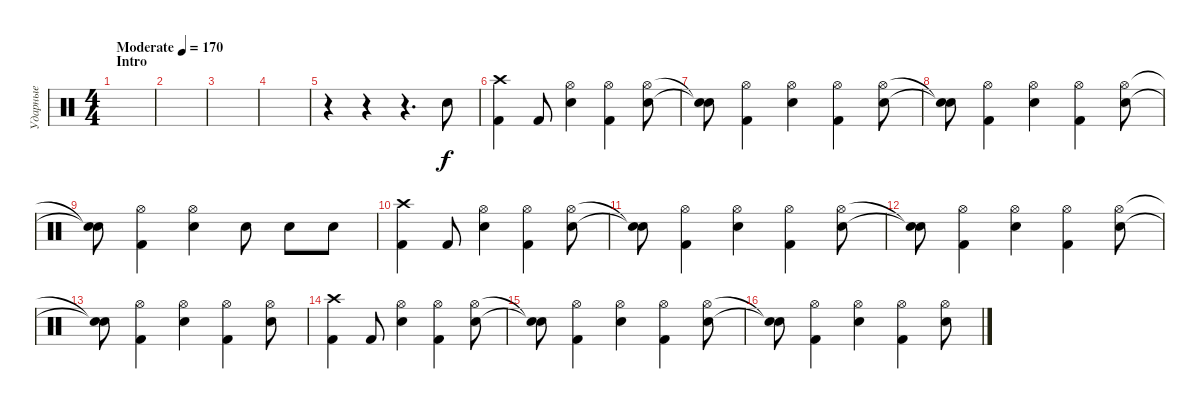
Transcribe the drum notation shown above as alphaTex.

\track ("Ударные" "Ударные") {instrument percussion}
\staff {score}
\articulation defaults
\ts (4 4)
\section ("" "Intro")
\tempo (170 "Moderate")
\clef neutral
\ks c
|
|
|
|
r.4 r.4 r.4{d} "Snare (hit) 2".8 |
("Crash high (hit)" "Kick (hit) 2").4 "Kick (hit) 2".8 ("Hi-Hat (open)" "Snare (hit) 2").4 ("Hi-Hat (open)" "Kick (hit) 2").4 ("Hi-Hat (open)" "Snare (hit) 2").8 |
("Snare (hit)"{t} "Snare (hit)"{t}).8 ("Hi-Hat (open)" "Kick (hit) 2").4 ("Hi-Hat (open)" "Snare (hit) 2").4 ("Hi-Hat (open)" "Kick (hit) 2").4 ("Hi-Hat (open)" "Snare (hit) 2").8 |
("Snare (hit)"{t} "Snare (hit)"{t}).8 ("Hi-Hat (open)" "Kick (hit) 2").4 ("Hi-Hat (open)" "Snare (hit) 2").4 ("Hi-Hat (open)" "Kick (hit) 2").4 ("Hi-Hat (open)" "Snare (hit) 2").8 |
("Snare (hit)"{t} "Snare (hit)"{t}).8 ("Hi-Hat (open)" "Kick (hit) 2").4 ("Hi-Hat (open)" "Snare (hit) 2").4 "Snare (hit) 2".8 "Snare (hit) 2".8 "Snare (hit) 2".8 |
("Crash high (hit)" "Kick (hit) 2").4 "Kick (hit) 2".8 ("Hi-Hat (open)" "Snare (hit) 2").4 ("Hi-Hat (open)" "Kick (hit) 2").4 ("Hi-Hat (open)" "Snare (hit) 2").8 |
("Snare (hit)"{t} "Snare (hit)"{t}).8 ("Hi-Hat (open)" "Kick (hit) 2").4 ("Hi-Hat (open)" "Snare (hit) 2").4 ("Hi-Hat (open)" "Kick (hit) 2").4 ("Hi-Hat (open)" "Snare (hit) 2").8 |
("Snare (hit)"{t} "Snare (hit)"{t}).8 ("Hi-Hat (open)" "Kick (hit) 2").4 ("Hi-Hat (open)" "Snare (hit) 2").4 ("Hi-Hat (open)" "Kick (hit) 2").4 ("Hi-Hat (open)" "Snare (hit) 2").8 |
("Snare (hit)"{t} "Snare (hit)"{t}).8 ("Hi-Hat (open)" "Kick (hit) 2").4 ("Hi-Hat (open)" "Snare (hit) 2").4 ("Hi-Hat (open)" "Kick (hit) 2").4 ("Hi-Hat (open)" "Snare (hit) 2").8 |
("Crash high (hit)" "Kick (hit) 2").4 "Kick (hit) 2".8 ("Hi-Hat (open)" "Snare (hit) 2").4 ("Hi-Hat (open)" "Kick (hit) 2").4 ("Hi-Hat (open)" "Snare (hit) 2").8 |
("Snare (hit)"{t} "Snare (hit)"{t}).8 ("Hi-Hat (open)" "Kick (hit) 2").4 ("Hi-Hat (open)" "Snare (hit) 2").4 ("Hi-Hat (open)" "Kick (hit) 2").4 ("Hi-Hat (open)" "Snare (hit) 2").8 |
("Snare (hit)"{t} "Snare (hit)"{t}).8 ("Hi-Hat (open)" "Kick (hit) 2").4 ("Hi-Hat (open)" "Snare (hit) 2").4 ("Hi-Hat (open)" "Kick (hit) 2").4 ("Hi-Hat (open)" "Snare (hit) 2").8
